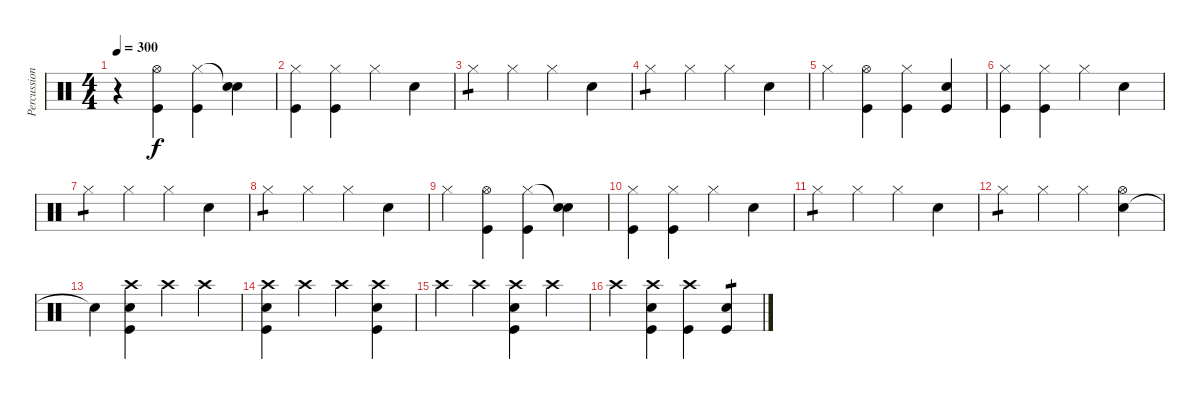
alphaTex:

\track ("Percussion" "Percussion") {instrument percussion}
\staff {score}
\articulation defaults
\ts (4 4)
\tempo 300
\clef neutral
\ks c
r.4{dy f} ("Kick (hit)" "Hi-Hat (open)").4 ("Kick (hit)" "Hi-Hat (closed)").4 ("Electric Snare (hit)" "Snare (hit)"{t}).4 |
("Kick (hit)" "Hi-Hat (closed)").4 ("Kick (hit)" "Hi-Hat (closed)").4 "Hi-Hat (closed)".4 "Electric Snare (hit)".4 |
"Hi-Hat (closed)".4{tp 1} "Hi-Hat (closed)".4 "Hi-Hat (closed)".4 "Electric Snare (hit)".4 |
"Hi-Hat (closed)".4{tp 1} "Hi-Hat (closed)".4 "Hi-Hat (closed)".4 "Electric Snare (hit)".4 |
"Hi-Hat (closed)".4 ("Kick (hit)" "Hi-Hat (open)").4 ("Kick (hit)" "Hi-Hat (closed)").4 ("Kick (hit)" "Electric Snare (hit)").4 |
("Kick (hit)" "Hi-Hat (closed)").4 ("Kick (hit)" "Hi-Hat (closed)").4 "Hi-Hat (closed)".4 "Electric Snare (hit)".4 |
"Hi-Hat (closed)".4{tp 1} "Hi-Hat (closed)".4 "Hi-Hat (closed)".4 "Electric Snare (hit)".4 |
"Hi-Hat (closed)".4{tp 1} "Hi-Hat (closed)".4 "Hi-Hat (closed)".4 "Electric Snare (hit)".4 |
"Hi-Hat (closed)".4 ("Kick (hit)" "Hi-Hat (open)").4 ("Kick (hit)" "Hi-Hat (closed)").4 ("Electric Snare (hit)" "Snare (hit)"{t}).4 |
("Kick (hit)" "Hi-Hat (closed)").4 ("Kick (hit)" "Hi-Hat (closed)").4 "Hi-Hat (closed)".4 "Electric Snare (hit)".4 |
"Hi-Hat (closed)".4{tp 1} "Hi-Hat (closed)".4 "Hi-Hat (closed)".4 "Electric Snare (hit)".4 |
"Hi-Hat (closed)".4{tp 1} "Hi-Hat (closed)".4 "Hi-Hat (closed)".4 ("Electric Snare (hit)" "Hi-Hat (open)").4 |
"Snare (hit)"{t}.4 ("Kick (hit)" "Electric Snare (hit)" "Crash high (hit)").4 "Crash high (hit)".4 "Crash high (hit)".4 |
("Kick (hit)" "Electric Snare (hit)" "Crash high (hit)").4 "Crash high (hit)".4 "Crash high (hit)".4 ("Kick (hit)" "Electric Snare (hit)" "Crash high (hit)").4 |
"Crash high (hit)".4 "Crash high (hit)".4 ("Kick (hit)" "Electric Snare (hit)" "Crash high (hit)").4 "Crash high (hit)".4 |
"Crash high (hit)".4 ("Kick (hit)" "Electric Snare (hit)" "Crash high (hit)").4 ("Kick (hit)" "Crash high (hit)").4 ("Kick (hit)" "Electric Snare (hit)").4{tp 1}
